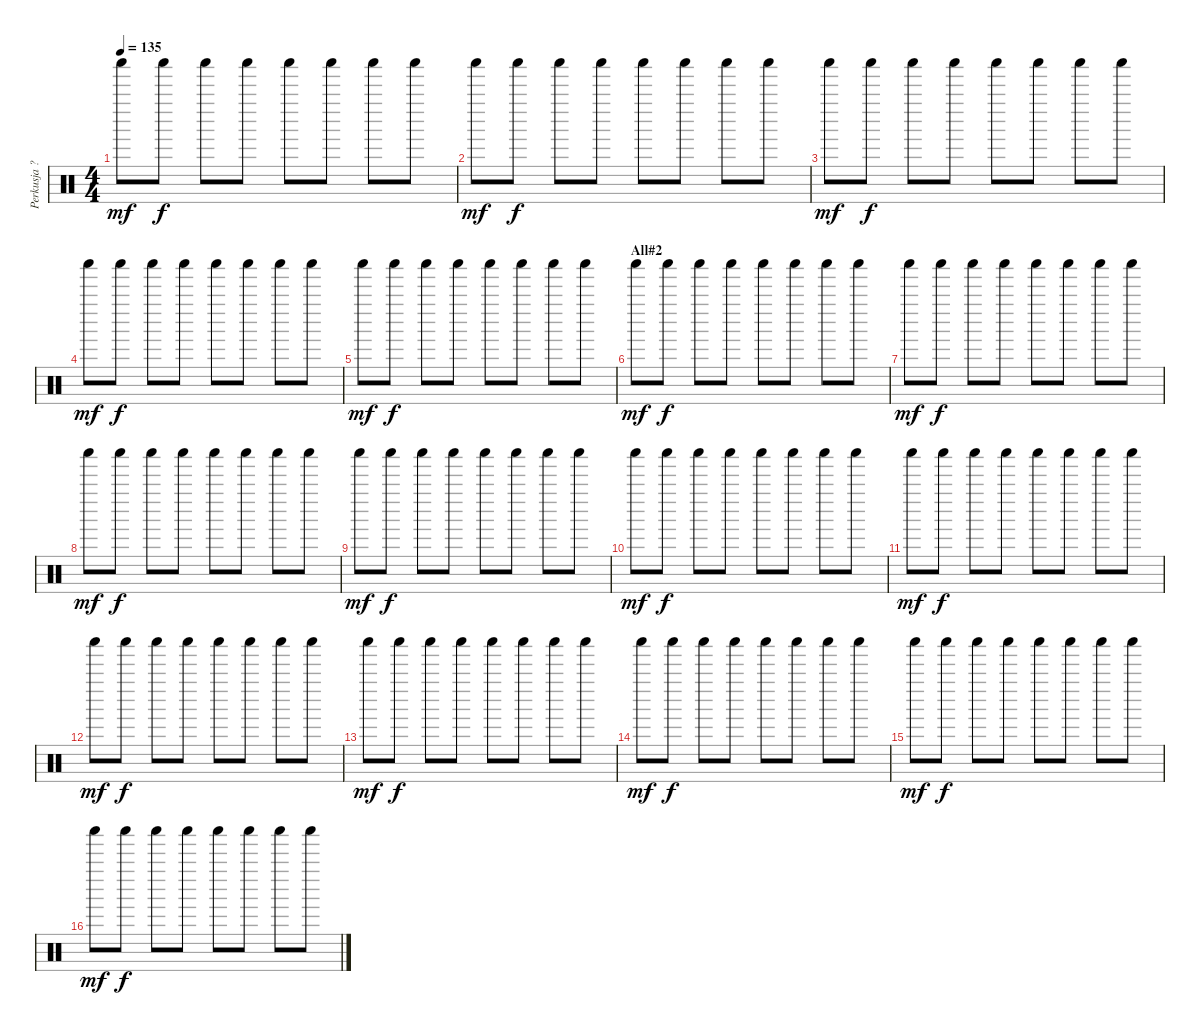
\track ("Perkusja ?" "Perkusja ?") {instrument percussion}
\staff {score}
\articulation defaults
\ts (4 4)
\tempo 135
\clef neutral
\ks c "Shaker (hit)".8{dy mf} "Shaker (hit)".8{dy f} "Shaker (hit)".8 "Shaker (hit)".8 "Shaker (hit)".8 "Shaker (hit)".8 "Shaker (hit)".8 "Shaker (hit)".8
|
"Shaker (hit)".8{dy mf} "Shaker (hit)".8{dy f} "Shaker (hit)".8 "Shaker (hit)".8 "Shaker (hit)".8 "Shaker (hit)".8 "Shaker (hit)".8 "Shaker (hit)".8 |
"Shaker (hit)".8{dy mf} "Shaker (hit)".8{dy f} "Shaker (hit)".8 "Shaker (hit)".8 "Shaker (hit)".8 "Shaker (hit)".8 "Shaker (hit)".8 "Shaker (hit)".8 |
"Shaker (hit)".8{dy mf} "Shaker (hit)".8{dy f} "Shaker (hit)".8 "Shaker (hit)".8 "Shaker (hit)".8 "Shaker (hit)".8 "Shaker (hit)".8 "Shaker (hit)".8 |
"Shaker (hit)".8{dy mf} "Shaker (hit)".8{dy f} "Shaker (hit)".8 "Shaker (hit)".8 "Shaker (hit)".8 "Shaker (hit)".8 "Shaker (hit)".8 "Shaker (hit)".8 |
\section ("" "All#2")
"Shaker (hit)".8{dy mf} "Shaker (hit)".8{dy f} "Shaker (hit)".8 "Shaker (hit)".8 "Shaker (hit)".8 "Shaker (hit)".8 "Shaker (hit)".8 "Shaker (hit)".8 |
"Shaker (hit)".8{dy mf} "Shaker (hit)".8{dy f} "Shaker (hit)".8 "Shaker (hit)".8 "Shaker (hit)".8 "Shaker (hit)".8 "Shaker (hit)".8 "Shaker (hit)".8 |
"Shaker (hit)".8{dy mf} "Shaker (hit)".8{dy f} "Shaker (hit)".8 "Shaker (hit)".8 "Shaker (hit)".8 "Shaker (hit)".8 "Shaker (hit)".8 "Shaker (hit)".8 |
"Shaker (hit)".8{dy mf} "Shaker (hit)".8{dy f} "Shaker (hit)".8 "Shaker (hit)".8 "Shaker (hit)".8 "Shaker (hit)".8 "Shaker (hit)".8 "Shaker (hit)".8 |
"Shaker (hit)".8{dy mf} "Shaker (hit)".8{dy f} "Shaker (hit)".8 "Shaker (hit)".8 "Shaker (hit)".8 "Shaker (hit)".8 "Shaker (hit)".8 "Shaker (hit)".8 |
"Shaker (hit)".8{dy mf} "Shaker (hit)".8{dy f} "Shaker (hit)".8 "Shaker (hit)".8 "Shaker (hit)".8 "Shaker (hit)".8 "Shaker (hit)".8 "Shaker (hit)".8 |
"Shaker (hit)".8{dy mf} "Shaker (hit)".8{dy f} "Shaker (hit)".8 "Shaker (hit)".8 "Shaker (hit)".8 "Shaker (hit)".8 "Shaker (hit)".8 "Shaker (hit)".8 |
"Shaker (hit)".8{dy mf} "Shaker (hit)".8{dy f} "Shaker (hit)".8 "Shaker (hit)".8 "Shaker (hit)".8 "Shaker (hit)".8 "Shaker (hit)".8 "Shaker (hit)".8 |
"Shaker (hit)".8{dy mf} "Shaker (hit)".8{dy f} "Shaker (hit)".8 "Shaker (hit)".8 "Shaker (hit)".8 "Shaker (hit)".8 "Shaker (hit)".8 "Shaker (hit)".8 |
"Shaker (hit)".8{dy mf} "Shaker (hit)".8{dy f} "Shaker (hit)".8 "Shaker (hit)".8 "Shaker (hit)".8 "Shaker (hit)".8 "Shaker (hit)".8 "Shaker (hit)".8 |
"Shaker (hit)".8{dy mf} "Shaker (hit)".8{dy f} "Shaker (hit)".8 "Shaker (hit)".8 "Shaker (hit)".8 "Shaker (hit)".8 "Shaker (hit)".8 "Shaker (hit)".8
